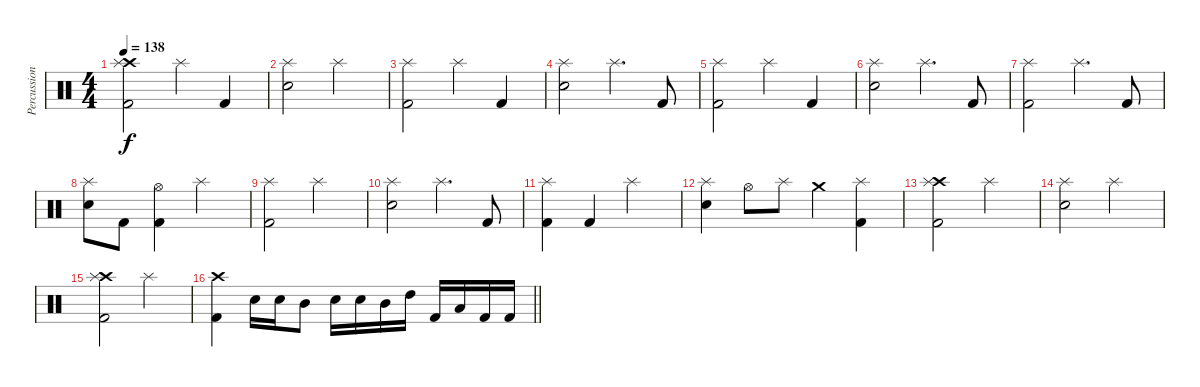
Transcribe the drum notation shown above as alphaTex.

\track ("Percussions" "Percussion") {instrument percussion}
\staff {score}
\articulation defaults
\ts (4 4)
\tempo 138
\clef neutral
\ks c
("Crash high (hit)" "Splash (hit)" "Kick (hit) 2").2{dy f} "Splash (hit)".4 "Kick (hit) 2".4 |
("Splash (hit)" "Snare (hit) 2").2 "Splash (hit)".2 |
("Splash (hit)" "Kick (hit) 2").2 "Splash (hit)".4 "Kick (hit) 2".4 |
("Splash (hit)" "Snare (hit) 2").2 "Splash (hit)".4{d} "Kick (hit) 2".8 |
("Splash (hit)" "Kick (hit) 2").2 "Splash (hit)".4 "Kick (hit) 2".4 |
("Splash (hit)" "Snare (hit) 2").2 "Splash (hit)".4{d} "Kick (hit) 2".8 |
("Splash (hit)" "Kick (hit) 2").2 "Splash (hit)".4{d} "Kick (hit) 2".8 |
("Splash (hit)" "Snare (hit) 2").8 "Kick (hit) 2".8 ("Hi-Hat (open)" "Kick (hit) 2").4 "Splash (hit)".2 |
("Splash (hit)" "Kick (hit) 2").2 "Splash (hit)".2 |
("Splash (hit)" "Snare (hit) 2").2 "Splash (hit)".4{d} "Kick (hit) 2".8 |
("Splash (hit)" "Kick (hit) 2").4 "Kick (hit) 2".4 "Splash (hit)".2 |
("Splash (hit)" "Snare (hit) 2").4 "Hi-Hat (open)".8 "Splash (hit)".8 "Crash medium (hit)".4 ("Splash (hit)" "Kick (hit) 2").4 |
("Crash high (hit)" "Splash (hit)" "Kick (hit) 2").2 "Splash (hit)".2 |
("Splash (hit)" "Snare (hit) 2").2 "Splash (hit)".2 |
("Crash high (hit)" "Splash (hit)" "Kick (hit) 2").2 "Splash (hit)".2 |
\barLineRight lightlight
("Crash high (hit)" "Kick (hit) 2").4 "Snare (hit) 2".16 "Snare (hit) 2".16 "Mid Tom (hit)".8 "Snare (hit) 2".16 "Snare (hit) 2".16 "Mid Tom (hit)".16 "High Tom (hit)".16 "Kick (hit) 2".16 "Low Tom (hit)".16 "Kick (hit) 2".16 "Kick (hit) 2".16
